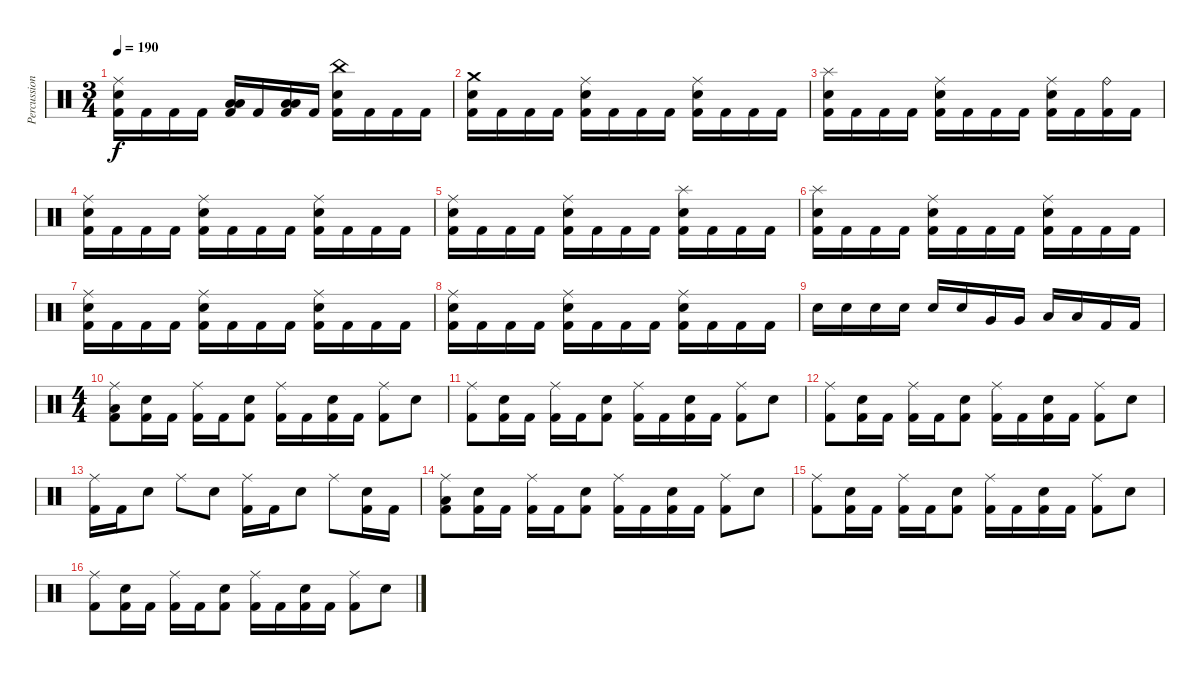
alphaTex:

\track ("Percussion" "Percussion") {instrument percussion}
\staff {score}
\articulation defaults
\ts (3 4)
\tempo 190
\clef neutral
\ks c
("Ride (middle)" "Electric Snare (hit)" "Kick (hit) 2").16{dy f} "Kick (hit) 2".16 "Kick (hit) 2".16 "Kick (hit) 2".16 ("Low Tom (hit)" "Low Floor Tom (hit)" "Kick (hit) 2").16 "Kick (hit) 2".16 ("Low Tom (hit)" "Low Floor Tom (hit)" "Kick (hit) 2").16 "Kick (hit) 2".16 ("China (hit)" "Electric Snare (hit)" "Kick (hit) 2").16 "Kick (hit) 2".16 "Kick (hit) 2".16 "Kick (hit) 2".16 |
("Crash medium (hit)" "Electric Snare (hit)" "Kick (hit) 2").16 "Kick (hit) 2".16 "Kick (hit) 2".16 "Kick (hit) 2".16 ("Ride (middle)" "Electric Snare (hit)" "Kick (hit) 2").16 "Kick (hit) 2".16 "Kick (hit) 2".16 "Kick (hit) 2".16 ("Ride (middle)" "Electric Snare (hit)" "Kick (hit) 2").16 "Kick (hit) 2".16 "Kick (hit) 2".16 "Kick (hit) 2".16 |
("Splash (hit)" "Electric Snare (hit)" "Kick (hit) 2").16 "Kick (hit) 2".16 "Kick (hit) 2".16 "Kick (hit) 2".16 ("Ride (middle)" "Electric Snare (hit)" "Kick (hit) 2").16 "Kick (hit) 2".16 "Kick (hit) 2".16 "Kick (hit) 2".16 ("Ride (middle)" "Electric Snare (hit)" "Kick (hit) 2").16 "Kick (hit) 2".16 ("Ride (bell)" "Kick (hit) 2").16 "Kick (hit) 2".16 |
("Ride (middle)" "Electric Snare (hit)" "Kick (hit) 2").16 "Kick (hit) 2".16 "Kick (hit) 2".16 "Kick (hit) 2".16 ("Ride (middle)" "Electric Snare (hit)" "Kick (hit) 2").16 "Kick (hit) 2".16 "Kick (hit) 2".16 "Kick (hit) 2".16 ("Ride (middle)" "Electric Snare (hit)" "Kick (hit) 2").16 "Kick (hit) 2".16 "Kick (hit) 2".16 "Kick (hit) 2".16 |
("Ride (middle)" "Electric Snare (hit)" "Kick (hit) 2").16 "Kick (hit) 2".16 "Kick (hit) 2".16 "Kick (hit) 2".16 ("Ride (middle)" "Electric Snare (hit)" "Kick (hit) 2").16 "Kick (hit) 2".16 "Kick (hit) 2".16 "Kick (hit) 2".16 ("Splash (hit)" "Electric Snare (hit)" "Kick (hit) 2").16 "Kick (hit) 2".16 "Kick (hit) 2".16 "Kick (hit) 2".16 |
("Splash (hit)" "Electric Snare (hit)" "Kick (hit) 2").16 "Kick (hit) 2".16 "Kick (hit) 2".16 "Kick (hit) 2".16 ("Ride (middle)" "Electric Snare (hit)" "Kick (hit) 2").16 "Kick (hit) 2".16 "Kick (hit) 2".16 "Kick (hit) 2".16 ("Ride (middle)" "Electric Snare (hit)" "Kick (hit) 2").16 "Kick (hit) 2".16 "Kick (hit) 2".16 "Kick (hit) 2".16 |
("Ride (middle)" "Electric Snare (hit)" "Kick (hit) 2").16 "Kick (hit) 2".16 "Kick (hit) 2".16 "Kick (hit) 2".16 ("Ride (middle)" "Electric Snare (hit)" "Kick (hit) 2").16 "Kick (hit) 2".16 "Kick (hit) 2".16 "Kick (hit) 2".16 ("Ride (middle)" "Electric Snare (hit)" "Kick (hit) 2").16 "Kick (hit) 2".16 "Kick (hit) 2".16 "Kick (hit) 2".16 |
("Ride (middle)" "Electric Snare (hit)" "Kick (hit) 2").16 "Kick (hit) 2".16 "Kick (hit) 2".16 "Kick (hit) 2".16 ("Ride (middle)" "Electric Snare (hit)" "Kick (hit) 2").16 "Kick (hit) 2".16 "Kick (hit) 2".16 "Kick (hit) 2".16 ("Ride (middle)" "Electric Snare (hit)" "Kick (hit) 2").16 "Kick (hit) 2".16 "Kick (hit) 2".16 "Kick (hit) 2".16 |
"Electric Snare (hit)".16 "Electric Snare (hit)".16 "Electric Snare (hit)".16 "Electric Snare (hit)".16 "Electric Snare (hit)".16 "Electric Snare (hit)".16 "Very Low Tom (hit)".16 "Very Low Tom (hit)".16 "Low Floor Tom (hit)".16 "Low Floor Tom (hit)".16 "Kick (hit) 2".16 "Kick (hit) 2".16 |
\ts (4 4)
("Ride (middle)" "Low Floor Tom (hit)" "Kick (hit) 2").8 ("Electric Snare (hit)" "Kick (hit) 2").16 "Kick (hit) 2".16 ("Ride (middle)" "Kick (hit) 2").16 "Kick (hit) 2".16 ("Electric Snare (hit)" "Kick (hit) 2").8 ("Ride (middle)" "Kick (hit) 2").16 "Kick (hit) 2".16 ("Electric Snare (hit)" "Kick (hit) 2").16 "Kick (hit) 2".16 ("Ride (middle)" "Kick (hit) 2").8 "Electric Snare (hit)".8 |
("Ride (middle)" "Kick (hit) 2").8 ("Electric Snare (hit)" "Kick (hit) 2").16 "Kick (hit) 2".16 ("Ride (middle)" "Kick (hit) 2").16 "Kick (hit) 2".16 ("Electric Snare (hit)" "Kick (hit) 2").8 ("Ride (middle)" "Kick (hit) 2").16 "Kick (hit) 2".16 ("Electric Snare (hit)" "Kick (hit) 2").16 "Kick (hit) 2".16 ("Ride (middle)" "Kick (hit) 2").8 "Electric Snare (hit)".8 |
("Ride (middle)" "Kick (hit) 2").8 ("Electric Snare (hit)" "Kick (hit) 2").16 "Kick (hit) 2".16 ("Ride (middle)" "Kick (hit) 2").16 "Kick (hit) 2".16 ("Electric Snare (hit)" "Kick (hit) 2").8 ("Ride (middle)" "Kick (hit) 2").16 "Kick (hit) 2".16 ("Electric Snare (hit)" "Kick (hit) 2").16 "Kick (hit) 2".16 ("Ride (middle)" "Kick (hit) 2").8 "Electric Snare (hit)".8 |
("Ride (middle)" "Kick (hit) 2").16 "Kick (hit) 2".16 "Electric Snare (hit)".8 "Ride (middle)".8 "Electric Snare (hit)".8 ("Ride (middle)" "Kick (hit) 2").16 "Kick (hit) 2".16 "Electric Snare (hit)".8 "Ride (middle)".8 ("Electric Snare (hit)" "Kick (hit) 2").16 "Kick (hit) 2".16 |
("Ride (middle)" "Low Floor Tom (hit)" "Kick (hit) 2").8 ("Electric Snare (hit)" "Kick (hit) 2").16 "Kick (hit) 2".16 ("Ride (middle)" "Kick (hit) 2").16 "Kick (hit) 2".16 ("Electric Snare (hit)" "Kick (hit) 2").8 ("Ride (middle)" "Kick (hit) 2").16 "Kick (hit) 2".16 ("Electric Snare (hit)" "Kick (hit) 2").16 "Kick (hit) 2".16 ("Ride (middle)" "Kick (hit) 2").8 "Electric Snare (hit)".8 |
("Ride (middle)" "Kick (hit) 2").8 ("Electric Snare (hit)" "Kick (hit) 2").16 "Kick (hit) 2".16 ("Ride (middle)" "Kick (hit) 2").16 "Kick (hit) 2".16 ("Electric Snare (hit)" "Kick (hit) 2").8 ("Ride (middle)" "Kick (hit) 2").16 "Kick (hit) 2".16 ("Electric Snare (hit)" "Kick (hit) 2").16 "Kick (hit) 2".16 ("Ride (middle)" "Kick (hit) 2").8 "Electric Snare (hit)".8 |
("Ride (middle)" "Kick (hit) 2").8 ("Electric Snare (hit)" "Kick (hit) 2").16 "Kick (hit) 2".16 ("Ride (middle)" "Kick (hit) 2").16 "Kick (hit) 2".16 ("Electric Snare (hit)" "Kick (hit) 2").8 ("Ride (middle)" "Kick (hit) 2").16 "Kick (hit) 2".16 ("Electric Snare (hit)" "Kick (hit) 2").16 "Kick (hit) 2".16 ("Ride (middle)" "Kick (hit) 2").8 "Electric Snare (hit)".8
